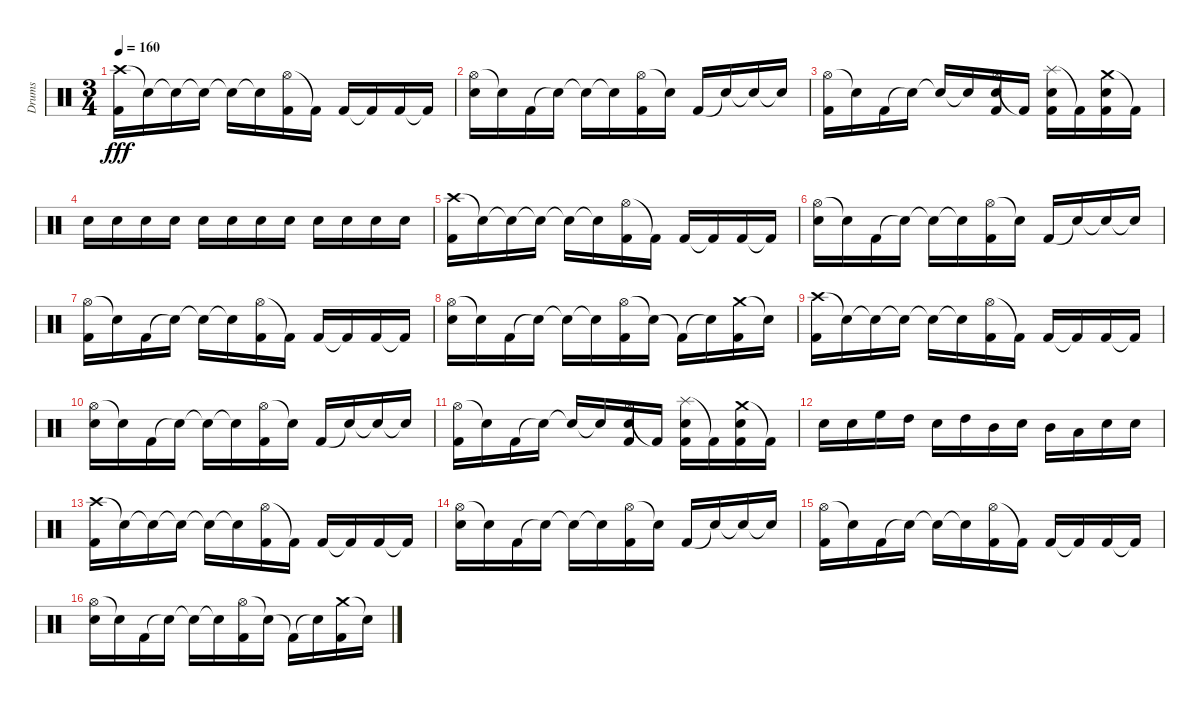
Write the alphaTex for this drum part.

\track ("Drums" "Drums") {instrument percussion}
\staff {score}
\articulation defaults
\ts (3 4)
\tempo 160
\clef neutral
\ks c
("Crash high (hit)" "Kick (hit) 2").16{dy fff} "Snare (hit)"{t}.16 "Snare (hit)"{t}.16 "Snare (hit)"{t}.16 "Snare (hit)"{t}.16 "Snare (hit)"{t}.16 ("Hi-Hat (open)" "Kick (hit) 2").16 "Kick (hit) 2"{t}.16 "Kick (hit) 2".16 "Kick (hit) 2"{t}.16 "Kick (hit) 2".16 "Kick (hit) 2"{t}.16 |
("Hi-Hat (open)" "Electric Snare (hit)").16 "Snare (hit)"{t}.16 "Kick (hit) 2".16 "Snare (hit)"{t}.16 "Snare (hit)"{t}.16 "Snare (hit)"{t}.16 ("Hi-Hat (open)" "Kick (hit) 2").16 "Snare (hit)"{t}.16 "Kick (hit) 2".16 "Snare (hit)"{t}.16 "Snare (hit)"{t}.16 "Snare (hit)"{t}.16 |
("Hi-Hat (open)" "Kick (hit) 2").16 "Snare (hit)"{t}.16 "Kick (hit) 2".16 "Snare (hit)"{t}.16 "Snare (hit)"{t}.16 "Snare (hit)"{t}.16 ("Hi-Hat (open)" "Electric Snare (hit)" "Kick (hit) 2").16 "Kick (hit) 2"{t}.16 ("Splash (hit)" "Electric Snare (hit)" "Kick (hit) 2").16 "Kick (hit) 2"{t}.16 ("Crash medium (hit)" "Electric Snare (hit)" "Kick (hit) 2").16 "Kick (hit) 2"{t}.16 |
"Electric Snare (hit)".16 "Electric Snare (hit)".16 "Electric Snare (hit)".16 "Electric Snare (hit)".16 "Electric Snare (hit)".16 "Electric Snare (hit)".16 "Electric Snare (hit)".16 "Electric Snare (hit)".16 "Electric Snare (hit)".16 "Electric Snare (hit)".16 "Electric Snare (hit)".16 "Electric Snare (hit)".16 |
("Crash high (hit)" "Kick (hit) 2").16 "Snare (hit)"{t}.16 "Snare (hit)"{t}.16 "Snare (hit)"{t}.16 "Snare (hit)"{t}.16 "Snare (hit)"{t}.16 ("Hi-Hat (open)" "Kick (hit) 2").16 "Kick (hit) 2"{t}.16 "Kick (hit) 2".16 "Kick (hit) 2"{t}.16 "Kick (hit) 2".16 "Kick (hit) 2"{t}.16 |
("Hi-Hat (open)" "Electric Snare (hit)").16 "Snare (hit)"{t}.16 "Kick (hit) 2".16 "Snare (hit)"{t}.16 "Snare (hit)"{t}.16 "Snare (hit)"{t}.16 ("Hi-Hat (open)" "Kick (hit) 2").16 "Snare (hit)"{t}.16 "Kick (hit) 2".16 "Snare (hit)"{t}.16 "Snare (hit)"{t}.16 "Snare (hit)"{t}.16 |
("Hi-Hat (open)" "Kick (hit) 2").16 "Snare (hit)"{t}.16 "Kick (hit) 2".16 "Snare (hit)"{t}.16 "Snare (hit)"{t}.16 "Snare (hit)"{t}.16 ("Hi-Hat (open)" "Kick (hit) 2").16 "Kick (hit) 2"{t}.16 "Kick (hit) 2".16 "Kick (hit) 2"{t}.16 "Kick (hit) 2".16 "Kick (hit) 2"{t}.16 |
("Hi-Hat (open)" "Electric Snare (hit)").16 "Snare (hit)"{t}.16 "Kick (hit) 2".16 "Snare (hit)"{t}.16 "Snare (hit)"{t}.16 "Snare (hit)"{t}.16 ("Hi-Hat (open)" "Kick (hit) 2").16 "Snare (hit)"{t}.16 "Kick (hit) 2"{t}.16 "Snare (hit)"{t}.16 ("Crash medium (hit)" "Kick (hit) 2").16 "Snare (hit)"{t}.16 |
("Crash high (hit)" "Kick (hit) 2").16 "Snare (hit)"{t}.16 "Snare (hit)"{t}.16 "Snare (hit)"{t}.16 "Snare (hit)"{t}.16 "Snare (hit)"{t}.16 ("Hi-Hat (open)" "Kick (hit) 2").16 "Kick (hit) 2"{t}.16 "Kick (hit) 2".16 "Kick (hit) 2"{t}.16 "Kick (hit) 2".16 "Kick (hit) 2"{t}.16 |
("Hi-Hat (open)" "Electric Snare (hit)").16 "Snare (hit)"{t}.16 "Kick (hit) 2".16 "Snare (hit)"{t}.16 "Snare (hit)"{t}.16 "Snare (hit)"{t}.16 ("Hi-Hat (open)" "Kick (hit) 2").16 "Snare (hit)"{t}.16 "Kick (hit) 2".16 "Snare (hit)"{t}.16 "Snare (hit)"{t}.16 "Snare (hit)"{t}.16 |
("Hi-Hat (open)" "Kick (hit) 2").16 "Snare (hit)"{t}.16 "Kick (hit) 2".16 "Snare (hit)"{t}.16 "Snare (hit)"{t}.16 "Snare (hit)"{t}.16 ("Hi-Hat (open)" "Electric Snare (hit)" "Kick (hit) 2").16 "Kick (hit) 2"{t}.16 ("Splash (hit)" "Electric Snare (hit)" "Kick (hit) 2").16 "Kick (hit) 2"{t}.16 ("Crash medium (hit)" "Electric Snare (hit)" "Kick (hit) 2").16 "Kick (hit) 2"{t}.16 |
"Electric Snare (hit)".16 "Electric Snare (hit)".16 "High Floor Tom (hit)".16 "High Tom (hit)".16 "Electric Snare (hit)".16 "High Tom (hit)".16 "Mid Tom (hit)".16 "Electric Snare (hit)".16 "Mid Tom (hit)".16 "Low Tom (hit)".16 "Electric Snare (hit)".16 "Electric Snare (hit)".16 |
("Crash high (hit)" "Kick (hit) 2").16 "Snare (hit)"{t}.16 "Snare (hit)"{t}.16 "Snare (hit)"{t}.16 "Snare (hit)"{t}.16 "Snare (hit)"{t}.16 ("Hi-Hat (open)" "Kick (hit) 2").16 "Kick (hit) 2"{t}.16 "Kick (hit) 2".16 "Kick (hit) 2"{t}.16 "Kick (hit) 2".16 "Kick (hit) 2"{t}.16 |
("Hi-Hat (open)" "Electric Snare (hit)").16 "Snare (hit)"{t}.16 "Kick (hit) 2".16 "Snare (hit)"{t}.16 "Snare (hit)"{t}.16 "Snare (hit)"{t}.16 ("Hi-Hat (open)" "Kick (hit) 2").16 "Snare (hit)"{t}.16 "Kick (hit) 2".16 "Snare (hit)"{t}.16 "Snare (hit)"{t}.16 "Snare (hit)"{t}.16 |
("Hi-Hat (open)" "Kick (hit) 2").16 "Snare (hit)"{t}.16 "Kick (hit) 2".16 "Snare (hit)"{t}.16 "Snare (hit)"{t}.16 "Snare (hit)"{t}.16 ("Hi-Hat (open)" "Kick (hit) 2").16 "Kick (hit) 2"{t}.16 "Kick (hit) 2".16 "Kick (hit) 2"{t}.16 "Kick (hit) 2".16 "Kick (hit) 2"{t}.16 |
("Hi-Hat (open)" "Electric Snare (hit)").16 "Snare (hit)"{t}.16 "Kick (hit) 2".16 "Snare (hit)"{t}.16 "Snare (hit)"{t}.16 "Snare (hit)"{t}.16 ("Hi-Hat (open)" "Kick (hit) 2").16 "Snare (hit)"{t}.16 "Kick (hit) 2"{t}.16 "Snare (hit)"{t}.16 ("Crash medium (hit)" "Kick (hit) 2").16 "Snare (hit)"{t}.16
